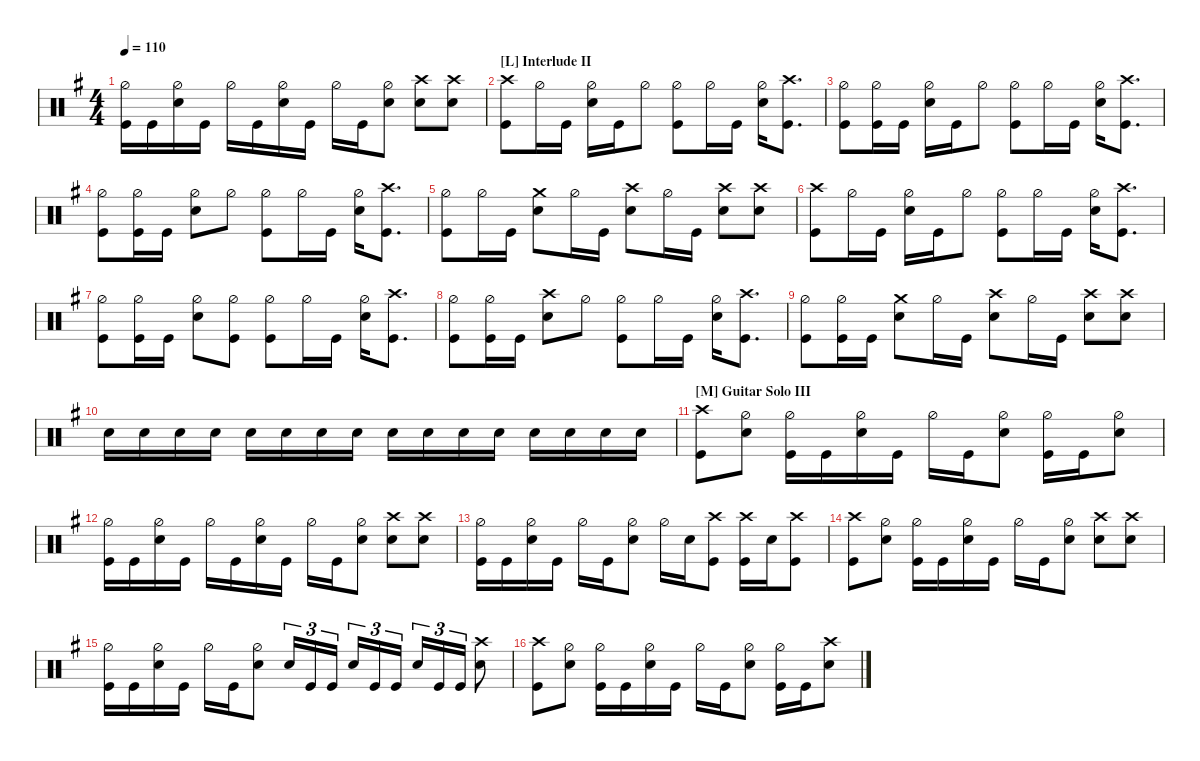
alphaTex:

\defaultSystemsLayout 4
\hideDynamics
\bracketExtendMode nobrackets
\otherSystemsTrackNameOrientation horizontal
\track ("Drums" " ") {instrument percussion}
\staff
\articulation defaults
\ts (4 4)
\tempo 110
\clef neutral
\ks eminor
("Hi-Hat (half)"{acc forcenatural} "Kick (hit)"{acc forcenatural}).16{dy f} "Kick (hit)"{acc forcenatural}.16 ("Hi-Hat (half)"{acc forcenatural} "Snare (hit) 2"{acc forcenatural}).16 "Kick (hit)"{acc forcenatural}.16 "Hi-Hat (half)"{acc forcenatural}.16 "Kick (hit)"{acc forcenatural}.16 ("Hi-Hat (half)"{acc forcenatural} "Snare (hit) 2"{acc forcenatural}).16 "Kick (hit)"{acc forcenatural}.16 "Hi-Hat (half)"{acc forcenatural}.16 "Kick (hit)"{acc forcenatural}.16 ("Hi-Hat (half)"{acc forcenatural} "Snare (hit) 2"{acc forcenatural}).8 ("Snare (hit) 2"{acc forcenatural} "Crash high (hit)"{acc forcenatural}).8 ("Snare (hit) 2"{acc forcenatural} "Crash high (hit)"{acc forcenatural}).8 |
\section ("L" "Interlude II")
("Crash high (hit)"{acc forcenatural} "Kick (hit)"{acc forcenatural}).8 "Hi-Hat (half)"{acc forcenatural}.16 "Kick (hit)"{acc forcenatural}.16 ("Hi-Hat (half)"{acc forcenatural} "Snare (hit) 2"{acc forcenatural}).16 "Kick (hit)"{acc forcenatural}.16 "Hi-Hat (half)"{acc forcenatural}.8 ("Kick (hit)"{acc forcenatural} "Hi-Hat (half)"{acc forcenatural}).8 "Hi-Hat (half)"{acc forcenatural}.16 "Kick (hit)"{acc forcenatural}.16 ("Hi-Hat (half)"{acc forcenatural} "Snare (hit) 2"{acc forcenatural}).16 ("Kick (hit)"{acc forcenatural} "Crash high (hit)"{acc forcenatural}).8{d} |
("Kick (hit)"{acc forcenatural} "Hi-Hat (half)"{acc forcenatural}).8 ("Hi-Hat (half)"{acc forcenatural} "Kick (hit)"{acc forcenatural}).16 "Kick (hit)"{acc forcenatural}.16 ("Hi-Hat (half)"{acc forcenatural} "Snare (hit) 2"{acc forcenatural}).16 "Kick (hit)"{acc forcenatural}.16 "Hi-Hat (half)"{acc forcenatural}.8 ("Kick (hit)"{acc forcenatural} "Hi-Hat (half)"{acc forcenatural}).8 "Hi-Hat (half)"{acc forcenatural}.16 "Kick (hit)"{acc forcenatural}.16 ("Hi-Hat (half)"{acc forcenatural} "Snare (hit) 2"{acc forcenatural}).16 ("Kick (hit)"{acc forcenatural} "Crash high (hit)"{acc forcenatural}).8{d} |
("Kick (hit)"{acc forcenatural} "Hi-Hat (half)"{acc forcenatural}).8 ("Hi-Hat (half)"{acc forcenatural} "Kick (hit)"{acc forcenatural}).16 "Kick (hit)"{acc forcenatural}.16 ("Hi-Hat (half)"{acc forcenatural} "Snare (hit) 2"{acc forcenatural}).8 "Hi-Hat (half)"{acc forcenatural}.8 ("Kick (hit)"{acc forcenatural} "Hi-Hat (half)"{acc forcenatural}).8 "Hi-Hat (half)"{acc forcenatural}.16 "Kick (hit)"{acc forcenatural}.16 ("Hi-Hat (half)"{acc forcenatural} "Snare (hit) 2"{acc forcenatural}).16 ("Kick (hit)"{acc forcenatural} "Crash high (hit)"{acc forcenatural}).8{d} |
("Kick (hit)"{acc forcenatural} "Hi-Hat (half)"{acc forcenatural}).8 "Hi-Hat (half)"{acc forcenatural}.16 "Kick (hit)"{acc forcenatural}.16 ("Snare (hit) 2"{acc forcenatural} "Crash medium (hit)"{acc forcenatural}).8 "Hi-Hat (half)"{acc forcenatural}.16 "Kick (hit)"{acc forcenatural}.16 ("Snare (hit) 2"{acc forcenatural} "Crash high (hit)"{acc forcenatural}).8 "Hi-Hat (half)"{acc forcenatural}.16 "Kick (hit)"{acc forcenatural}.16 ("Snare (hit) 2"{acc forcenatural} "Crash high (hit)"{acc forcenatural}).8 ("Snare (hit) 2"{acc forcenatural} "Crash high (hit)"{acc forcenatural}).8 |
("Crash high (hit)"{acc forcenatural} "Kick (hit)"{acc forcenatural}).8 "Hi-Hat (half)"{acc forcenatural}.16 "Kick (hit)"{acc forcenatural}.16 ("Hi-Hat (half)"{acc forcenatural} "Snare (hit) 2"{acc forcenatural}).16 "Kick (hit)"{acc forcenatural}.16 "Hi-Hat (half)"{acc forcenatural}.8 ("Kick (hit)"{acc forcenatural} "Hi-Hat (half)"{acc forcenatural}).8 "Hi-Hat (half)"{acc forcenatural}.16 "Kick (hit)"{acc forcenatural}.16 ("Hi-Hat (half)"{acc forcenatural} "Snare (hit) 2"{acc forcenatural}).16 ("Kick (hit)"{acc forcenatural} "Crash high (hit)"{acc forcenatural}).8{d} |
("Kick (hit)"{acc forcenatural} "Hi-Hat (half)"{acc forcenatural}).8 ("Hi-Hat (half)"{acc forcenatural} "Kick (hit)"{acc forcenatural}).16 "Kick (hit)"{acc forcenatural}.16 ("Hi-Hat (half)"{acc forcenatural} "Snare (hit) 2"{acc forcenatural}).8 ("Hi-Hat (half)"{acc forcenatural} "Kick (hit)"{acc forcenatural}).8 ("Kick (hit)"{acc forcenatural} "Hi-Hat (half)"{acc forcenatural}).8 "Hi-Hat (half)"{acc forcenatural}.16 "Kick (hit)"{acc forcenatural}.16 ("Hi-Hat (half)"{acc forcenatural} "Snare (hit) 2"{acc forcenatural}).16 ("Kick (hit)"{acc forcenatural} "Crash high (hit)"{acc forcenatural}).8{d} |
("Kick (hit)"{acc forcenatural} "Hi-Hat (half)"{acc forcenatural}).8 ("Hi-Hat (half)"{acc forcenatural} "Kick (hit)"{acc forcenatural}).16 "Kick (hit)"{acc forcenatural}.16 ("Snare (hit) 2"{acc forcenatural} "Crash high (hit)"{acc forcenatural}).8 "Hi-Hat (half)"{acc forcenatural}.8 ("Kick (hit)"{acc forcenatural} "Hi-Hat (half)"{acc forcenatural}).8 "Hi-Hat (half)"{acc forcenatural}.16 "Kick (hit)"{acc forcenatural}.16 ("Hi-Hat (half)"{acc forcenatural} "Snare (hit) 2"{acc forcenatural}).16 ("Kick (hit)"{acc forcenatural} "Crash high (hit)"{acc forcenatural}).8{d} |
("Kick (hit)"{acc forcenatural} "Hi-Hat (half)"{acc forcenatural}).8 ("Hi-Hat (half)"{acc forcenatural} "Kick (hit)"{acc forcenatural}).16 "Kick (hit)"{acc forcenatural}.16 ("Snare (hit) 2"{acc forcenatural} "Crash medium (hit)"{acc forcenatural}).8 "Hi-Hat (half)"{acc forcenatural}.16 "Kick (hit)"{acc forcenatural}.16 ("Snare (hit) 2"{acc forcenatural} "Crash high (hit)"{acc forcenatural}).8 "Hi-Hat (half)"{acc forcenatural}.16 "Kick (hit)"{acc forcenatural}.16 ("Snare (hit) 2"{acc forcenatural} "Crash high (hit)"{acc forcenatural}).8 ("Snare (hit) 2"{acc forcenatural} "Crash high (hit)"{acc forcenatural}).8 |
"Snare (hit) 2"{acc forcenatural}.16 "Snare (hit) 2"{acc forcenatural}.16 "Snare (hit) 2"{acc forcenatural}.16 "Snare (hit) 2"{acc forcenatural}.16 "Snare (hit) 2"{acc forcenatural}.16 "Snare (hit) 2"{acc forcenatural}.16 "Snare (hit) 2"{acc forcenatural}.16 "Snare (hit) 2"{acc forcenatural}.16 "Snare (hit) 2"{acc forcenatural}.16 "Snare (hit) 2"{acc forcenatural}.16 "Snare (hit) 2"{acc forcenatural}.16 "Snare (hit) 2"{acc forcenatural}.16 "Snare (hit) 2"{acc forcenatural}.16 "Snare (hit) 2"{acc forcenatural}.16 "Snare (hit) 2"{acc forcenatural}.16 "Snare (hit) 2"{acc forcenatural}.16 |
\section ("M" "Guitar Solo III")
("Kick (hit)"{acc forcenatural} "Crash high (hit)"{acc forcenatural}).8 ("Hi-Hat (half)"{acc forcenatural} "Snare (hit) 2"{acc forcenatural}).8 ("Hi-Hat (half)"{acc forcenatural} "Kick (hit)"{acc forcenatural}).16 "Kick (hit)"{acc forcenatural}.16 ("Hi-Hat (half)"{acc forcenatural} "Snare (hit) 2"{acc forcenatural}).16 "Kick (hit)"{acc forcenatural}.16 "Hi-Hat (half)"{acc forcenatural}.16 "Kick (hit)"{acc forcenatural}.16 ("Hi-Hat (half)"{acc forcenatural} "Snare (hit) 2"{acc forcenatural}).8 ("Hi-Hat (half)"{acc forcenatural} "Kick (hit)"{acc forcenatural}).16 "Kick (hit)"{acc forcenatural}.16 ("Hi-Hat (half)"{acc forcenatural} "Snare (hit) 2"{acc forcenatural}).8 |
("Hi-Hat (half)"{acc forcenatural} "Kick (hit)"{acc forcenatural}).16 "Kick (hit)"{acc forcenatural}.16 ("Hi-Hat (half)"{acc forcenatural} "Snare (hit) 2"{acc forcenatural}).16 "Kick (hit)"{acc forcenatural}.16 "Hi-Hat (half)"{acc forcenatural}.16 "Kick (hit)"{acc forcenatural}.16 ("Hi-Hat (half)"{acc forcenatural} "Snare (hit) 2"{acc forcenatural}).16 "Kick (hit)"{acc forcenatural}.16 "Hi-Hat (half)"{acc forcenatural}.16 "Kick (hit)"{acc forcenatural}.16 ("Hi-Hat (half)"{acc forcenatural} "Snare (hit) 2"{acc forcenatural}).8 ("Snare (hit) 2"{acc forcenatural} "Crash high (hit)"{acc forcenatural}).8 ("Snare (hit) 2"{acc forcenatural} "Crash high (hit)"{acc forcenatural}).8 |
("Hi-Hat (half)"{acc forcenatural} "Kick (hit)"{acc forcenatural}).16 "Kick (hit)"{acc forcenatural}.16 ("Hi-Hat (half)"{acc forcenatural} "Snare (hit) 2"{acc forcenatural}).16 "Kick (hit)"{acc forcenatural}.16 "Hi-Hat (half)"{acc forcenatural}.16 "Kick (hit)"{acc forcenatural}.16 ("Hi-Hat (half)"{acc forcenatural} "Snare (hit) 2"{acc forcenatural}).8 "Hi-Hat (half)"{acc forcenatural}.16 "Snare (hit) 2"{acc forcenatural}.16 ("Crash high (hit)"{acc forcenatural} "Kick (hit)"{acc forcenatural}).8 ("Crash high (hit)"{acc forcenatural} "Kick (hit)"{acc forcenatural}).16 "Snare (hit) 2"{acc forcenatural}.16 ("Crash high (hit)"{acc forcenatural} "Kick (hit)"{acc forcenatural}).8 |
("Kick (hit)"{acc forcenatural} "Crash high (hit)"{acc forcenatural}).8 ("Hi-Hat (half)"{acc forcenatural} "Snare (hit) 2"{acc forcenatural}).8 ("Hi-Hat (half)"{acc forcenatural} "Kick (hit)"{acc forcenatural}).16 "Kick (hit)"{acc forcenatural}.16 ("Hi-Hat (half)"{acc forcenatural} "Snare (hit) 2"{acc forcenatural}).16 "Kick (hit)"{acc forcenatural}.16 "Hi-Hat (half)"{acc forcenatural}.16 "Kick (hit)"{acc forcenatural}.16 ("Hi-Hat (half)"{acc forcenatural} "Snare (hit) 2"{acc forcenatural}).8 ("Snare (hit) 2"{acc forcenatural} "Crash high (hit)"{acc forcenatural}).8 ("Snare (hit) 2"{acc forcenatural} "Crash high (hit)"{acc forcenatural}).8 |
("Hi-Hat (half)"{acc forcenatural} "Kick (hit)"{acc forcenatural}).16 "Kick (hit)"{acc forcenatural}.16 ("Hi-Hat (half)"{acc forcenatural} "Snare (hit) 2"{acc forcenatural}).16 "Kick (hit)"{acc forcenatural}.16 "Hi-Hat (half)"{acc forcenatural}.16 "Kick (hit)"{acc forcenatural}.16 ("Hi-Hat (half)"{acc forcenatural} "Snare (hit) 2"{acc forcenatural}).8 "Snare (hit) 2"{acc forcenatural}.16{tu (3 2)} "Kick (hit)"{acc forcenatural}.16{tu (3 2)} "Kick (hit)"{acc forcenatural}.16{tu (3 2)} "Snare (hit) 2"{acc forcenatural}.16{tu (3 2)} "Kick (hit)"{acc forcenatural}.16{tu (3 2)} "Kick (hit)"{acc forcenatural}.16{tu (3 2)} "Snare (hit) 2"{acc forcenatural}.16{tu (3 2)} "Kick (hit)"{acc forcenatural}.16{tu (3 2)} "Kick (hit)"{acc forcenatural}.16{tu (3 2)} ("Snare (hit) 2"{acc forcenatural} "Crash high (hit)"{acc forcenatural}).8 |
("Kick (hit)"{acc forcenatural} "Crash high (hit)"{acc forcenatural}).8 ("Hi-Hat (half)"{acc forcenatural} "Snare (hit) 2"{acc forcenatural}).8 ("Hi-Hat (half)"{acc forcenatural} "Kick (hit)"{acc forcenatural}).16 "Kick (hit)"{acc forcenatural}.16 ("Hi-Hat (half)"{acc forcenatural} "Snare (hit) 2"{acc forcenatural}).16 "Kick (hit)"{acc forcenatural}.16 "Hi-Hat (half)"{acc forcenatural}.16 "Kick (hit)"{acc forcenatural}.16 ("Hi-Hat (half)"{acc forcenatural} "Snare (hit) 2"{acc forcenatural}).8 ("Kick (hit)"{acc forcenatural} "Hi-Hat (half)"{acc forcenatural}).16 "Kick (hit)"{acc forcenatural}.16 ("Snare (hit) 2"{acc forcenatural} "Crash high (hit)"{acc forcenatural}).8
